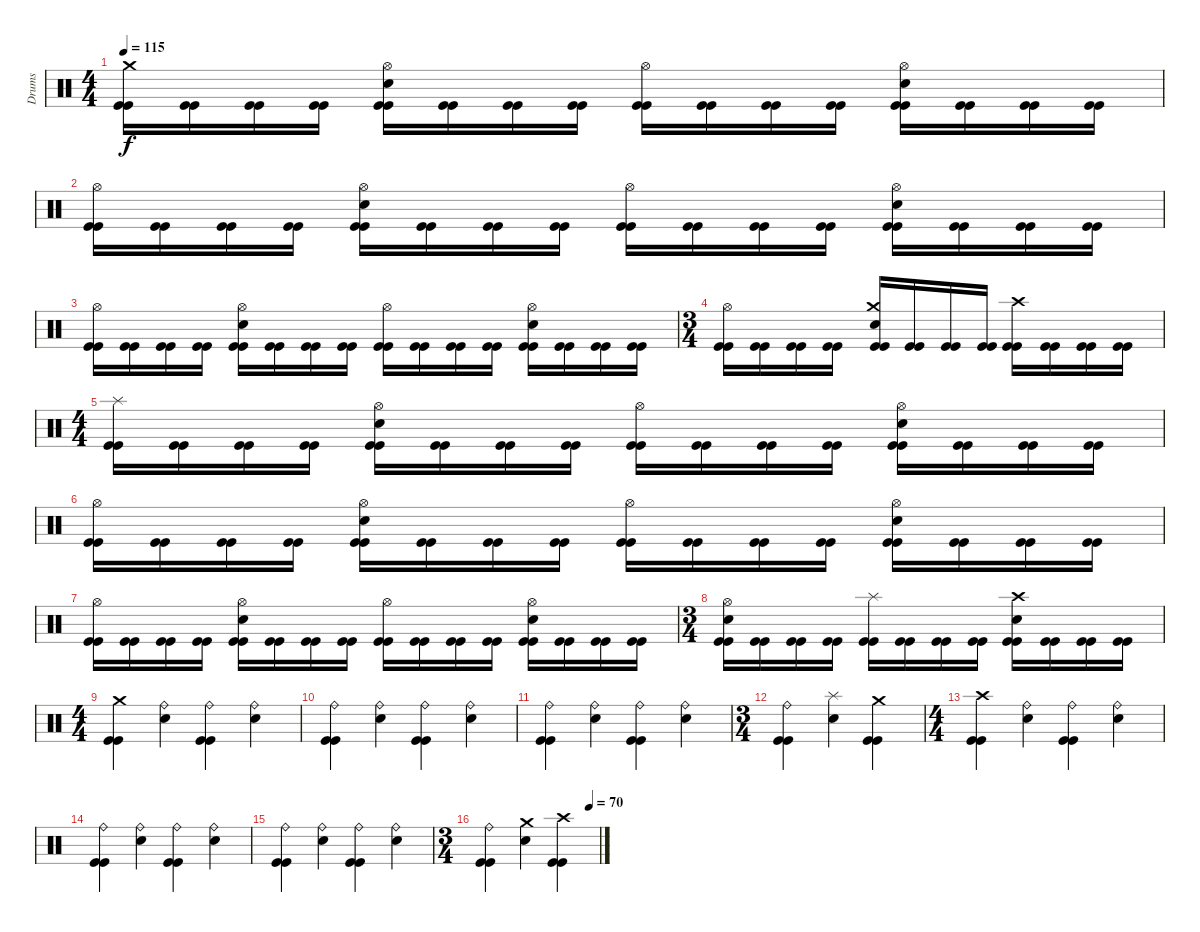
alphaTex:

\track ("Drums" "Drums") {instrument percussion}
\staff {score}
\articulation defaults
\ts (4 4)
\tempo 115
\clef neutral
\ks c
("Kick (hit)" "Kick (hit)" "Crash medium (hit)").16{dy f} ("Kick (hit)" "Kick (hit)").16 ("Kick (hit)" "Kick (hit)").16 ("Kick (hit)" "Kick (hit)").16 ("Kick (hit)" "Kick (hit)" "Snare (hit) 2" "Hi-Hat (open)").16 ("Kick (hit)" "Kick (hit)").16 ("Kick (hit)" "Kick (hit)").16 ("Kick (hit)" "Kick (hit)").16 ("Kick (hit)" "Kick (hit)" "Hi-Hat (open)").16 ("Kick (hit)" "Kick (hit)").16 ("Kick (hit)" "Kick (hit)").16 ("Kick (hit)" "Kick (hit)").16 ("Kick (hit)" "Kick (hit)" "Snare (hit) 2" "Hi-Hat (open)").16 ("Kick (hit)" "Kick (hit)").16 ("Kick (hit)" "Kick (hit)").16 ("Kick (hit)" "Kick (hit)").16 |
("Kick (hit)" "Kick (hit)" "Hi-Hat (open)").16 ("Kick (hit)" "Kick (hit)").16 ("Kick (hit)" "Kick (hit)").16 ("Kick (hit)" "Kick (hit)").16 ("Kick (hit)" "Kick (hit)" "Snare (hit) 2" "Hi-Hat (open)").16 ("Kick (hit)" "Kick (hit)").16 ("Kick (hit)" "Kick (hit)").16 ("Kick (hit)" "Kick (hit)").16 ("Kick (hit)" "Kick (hit)" "Hi-Hat (open)").16 ("Kick (hit)" "Kick (hit)").16 ("Kick (hit)" "Kick (hit)").16 ("Kick (hit)" "Kick (hit)").16 ("Kick (hit)" "Kick (hit)" "Snare (hit) 2" "Hi-Hat (open)").16 ("Kick (hit)" "Kick (hit)").16 ("Kick (hit)" "Kick (hit)").16 ("Kick (hit)" "Kick (hit)").16 |
("Kick (hit)" "Kick (hit)" "Hi-Hat (open)").16 ("Kick (hit)" "Kick (hit)").16 ("Kick (hit)" "Kick (hit)").16 ("Kick (hit)" "Kick (hit)").16 ("Kick (hit)" "Kick (hit)" "Snare (hit) 2" "Hi-Hat (open)").16 ("Kick (hit)" "Kick (hit)").16 ("Kick (hit)" "Kick (hit)").16 ("Kick (hit)" "Kick (hit)").16 ("Kick (hit)" "Kick (hit)" "Hi-Hat (open)").16 ("Kick (hit)" "Kick (hit)").16 ("Kick (hit)" "Kick (hit)").16 ("Kick (hit)" "Kick (hit)").16 ("Kick (hit)" "Kick (hit)" "Snare (hit) 2" "Hi-Hat (open)").16 ("Kick (hit)" "Kick (hit)").16 ("Kick (hit)" "Kick (hit)").16 ("Kick (hit)" "Kick (hit)").16 |
\ts (3 4)
("Kick (hit)" "Kick (hit)" "Hi-Hat (open)").16 ("Kick (hit)" "Kick (hit)").16 ("Kick (hit)" "Kick (hit)").16 ("Kick (hit)" "Kick (hit)").16 ("Kick (hit)" "Kick (hit)" "Snare (hit) 2" "Crash medium (hit)").16 ("Kick (hit)" "Kick (hit)").16 ("Kick (hit)" "Kick (hit)").16 ("Kick (hit)" "Kick (hit)").16 ("Kick (hit)" "Kick (hit)" "Crash high (hit)").16 ("Kick (hit)" "Kick (hit)").16 ("Kick (hit)" "Kick (hit)").16 ("Kick (hit)" "Kick (hit)").16 |
\ts (4 4)
("Kick (hit)" "Kick (hit)" "Splash (hit)").16 ("Kick (hit)" "Kick (hit)").16 ("Kick (hit)" "Kick (hit)").16 ("Kick (hit)" "Kick (hit)").16 ("Kick (hit)" "Kick (hit)" "Snare (hit) 2" "Hi-Hat (open)").16 ("Kick (hit)" "Kick (hit)").16 ("Kick (hit)" "Kick (hit)").16 ("Kick (hit)" "Kick (hit)").16 ("Kick (hit)" "Kick (hit)" "Hi-Hat (open)").16 ("Kick (hit)" "Kick (hit)").16 ("Kick (hit)" "Kick (hit)").16 ("Kick (hit)" "Kick (hit)").16 ("Kick (hit)" "Kick (hit)" "Snare (hit) 2" "Hi-Hat (open)").16 ("Kick (hit)" "Kick (hit)").16 ("Kick (hit)" "Kick (hit)").16 ("Kick (hit)" "Kick (hit)").16 |
("Kick (hit)" "Kick (hit)" "Hi-Hat (open)").16 ("Kick (hit)" "Kick (hit)").16 ("Kick (hit)" "Kick (hit)").16 ("Kick (hit)" "Kick (hit)").16 ("Kick (hit)" "Kick (hit)" "Snare (hit) 2" "Hi-Hat (open)").16 ("Kick (hit)" "Kick (hit)").16 ("Kick (hit)" "Kick (hit)").16 ("Kick (hit)" "Kick (hit)").16 ("Kick (hit)" "Kick (hit)" "Hi-Hat (open)").16 ("Kick (hit)" "Kick (hit)").16 ("Kick (hit)" "Kick (hit)").16 ("Kick (hit)" "Kick (hit)").16 ("Kick (hit)" "Kick (hit)" "Snare (hit) 2" "Hi-Hat (open)").16 ("Kick (hit)" "Kick (hit)").16 ("Kick (hit)" "Kick (hit)").16 ("Kick (hit)" "Kick (hit)").16 |
("Kick (hit)" "Kick (hit)" "Hi-Hat (open)").16 ("Kick (hit)" "Kick (hit)").16 ("Kick (hit)" "Kick (hit)").16 ("Kick (hit)" "Kick (hit)").16 ("Kick (hit)" "Kick (hit)" "Snare (hit) 2" "Hi-Hat (open)").16 ("Kick (hit)" "Kick (hit)").16 ("Kick (hit)" "Kick (hit)").16 ("Kick (hit)" "Kick (hit)").16 ("Kick (hit)" "Kick (hit)" "Hi-Hat (open)").16 ("Kick (hit)" "Kick (hit)").16 ("Kick (hit)" "Kick (hit)").16 ("Kick (hit)" "Kick (hit)").16 ("Kick (hit)" "Kick (hit)" "Snare (hit) 2" "Hi-Hat (open)").16 ("Kick (hit)" "Kick (hit)").16 ("Kick (hit)" "Kick (hit)").16 ("Kick (hit)" "Kick (hit)").16 |
\ts (3 4)
("Kick (hit)" "Kick (hit)" "Snare (hit) 2" "Hi-Hat (open)").16 ("Kick (hit)" "Kick (hit)").16 ("Kick (hit)" "Kick (hit)").16 ("Kick (hit)" "Kick (hit)").16 ("Kick (hit)" "Kick (hit)" "Splash (hit)").16 ("Kick (hit)" "Kick (hit)").16 ("Kick (hit)" "Kick (hit)").16 ("Kick (hit)" "Kick (hit)").16 ("Kick (hit)" "Kick (hit)" "Snare (hit) 2" "Crash high (hit)").16 ("Kick (hit)" "Kick (hit)").16 ("Kick (hit)" "Kick (hit)").16 ("Kick (hit)" "Kick (hit)").16 |
\ts (4 4)
("Kick (hit)" "Kick (hit)" "Crash medium (hit)").4 ("Snare (hit) 2" "Ride (bell)").4 ("Kick (hit)" "Kick (hit)" "Ride (bell)").4 ("Snare (hit) 2" "Ride (bell)").4 |
("Kick (hit)" "Kick (hit)" "Ride (bell)").4 ("Snare (hit) 2" "Ride (bell)").4 ("Kick (hit)" "Kick (hit)" "Ride (bell)").4 ("Snare (hit) 2" "Ride (bell)").4 |
("Kick (hit)" "Kick (hit)" "Ride (bell)").4 ("Snare (hit) 2" "Ride (bell)").4 ("Kick (hit)" "Kick (hit)" "Ride (bell)").4 ("Snare (hit) 2" "Ride (bell)").4 |
\ts (3 4)
("Kick (hit)" "Kick (hit)" "Ride (bell)").4 ("Snare (hit) 2" "Splash (hit)").4 ("Kick (hit)" "Kick (hit)" "Crash medium (hit)").4 |
\ts (4 4)
("Kick (hit)" "Kick (hit)" "Crash high (hit)").4 ("Snare (hit) 2" "Ride (bell)").4 ("Kick (hit)" "Kick (hit)" "Ride (bell)").4 ("Snare (hit) 2" "Ride (bell)").4 |
("Kick (hit)" "Kick (hit)" "Ride (bell)").4 ("Snare (hit) 2" "Ride (bell)").4 ("Kick (hit)" "Kick (hit)" "Ride (bell)").4 ("Snare (hit) 2" "Ride (bell)").4 |
("Kick (hit)" "Kick (hit)" "Ride (bell)").4 ("Snare (hit) 2" "Ride (bell)").4 ("Kick (hit)" "Kick (hit)" "Ride (bell)").4 ("Snare (hit) 2" "Ride (bell)").4 |
\ts (3 4)
\tempo (70 0.9166666666666666)
("Kick (hit)" "Kick (hit)" "Ride (bell)").4 ("Snare (hit) 2" "Crash medium (hit)").4 ("Kick (hit)" "Kick (hit)" "Crash high (hit)").4
